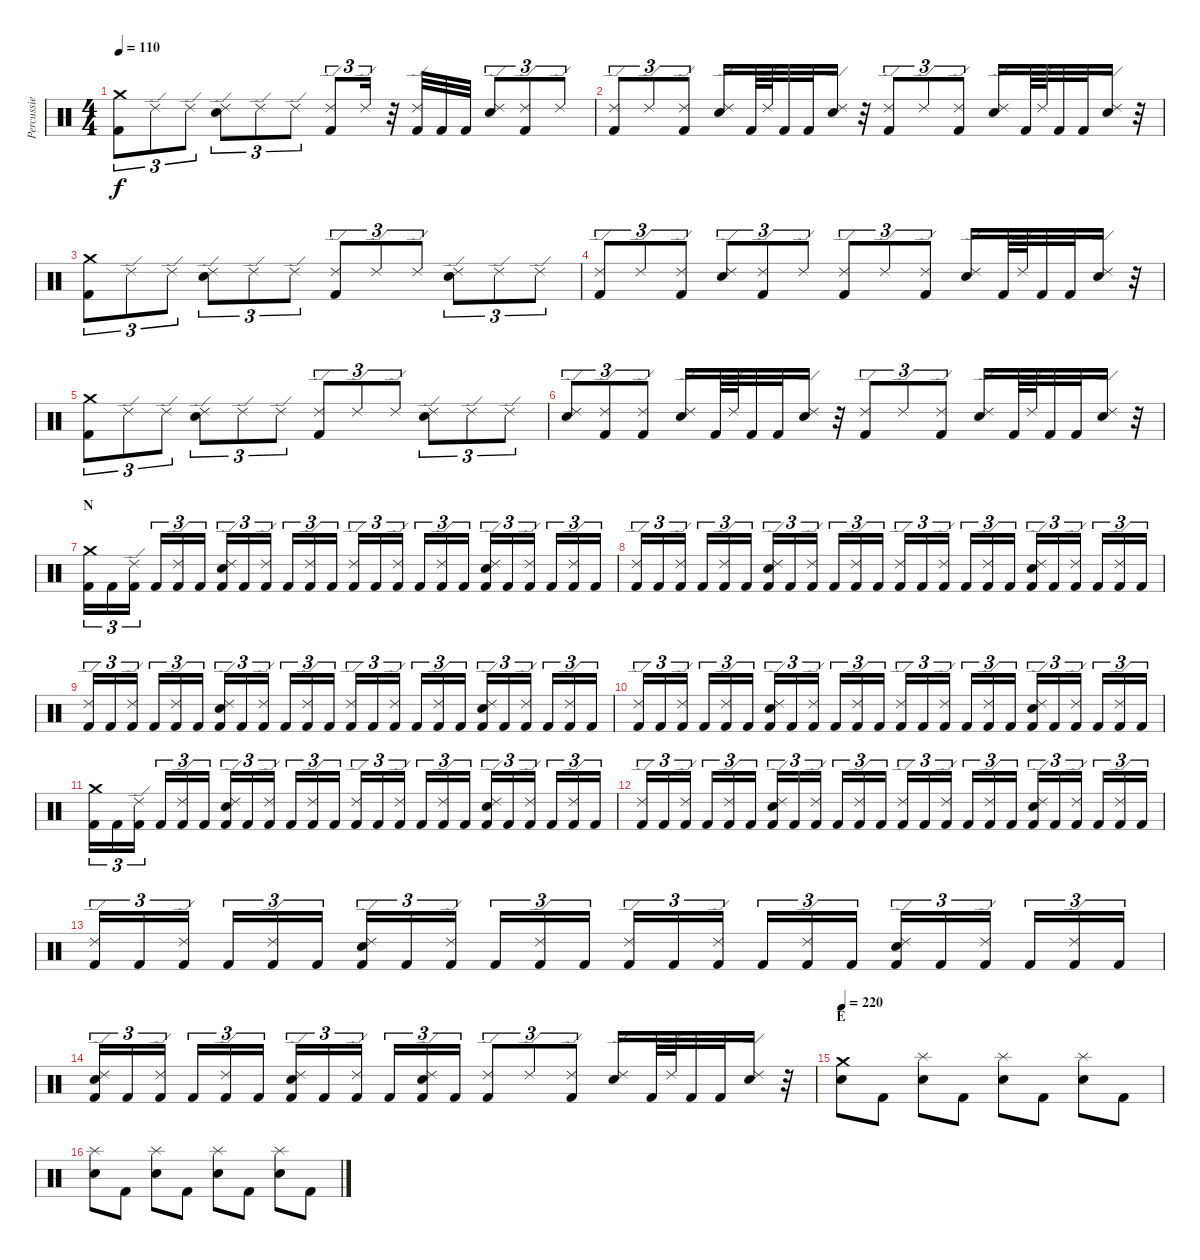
\track ("Percussie" "Percussie") {instrument percussion}
\staff {score}
\articulation defaults
\ts (4 4)
\tempo 110
\clef neutral
\ks c
("Crash medium (hit)" "Kick (hit) 2").8{tu (3 2) dy f} "Ride (edge) 2".8{tu (3 2)} "Ride (edge) 2".8{tu (3 2)} ("Ride (edge) 2" "Electric Snare (hit)").8{tu (3 2)} "Ride (edge) 2".8{tu (3 2)} "Ride (edge) 2".8{tu (3 2)} ("Ride (edge) 2" "Kick (hit) 2").8{tu (3 2)} "Ride (edge) 2".16{tu (3 2)} r.32 ("Ride (edge) 2" "Kick (hit) 2").32 "Kick (hit) 2".32 "Kick (hit) 2".32 ("Ride (edge) 2" "Electric Snare (hit)").8{tu (3 2)} ("Ride (edge) 2" "Kick (hit) 2").8{tu (3 2)} "Ride (edge) 2".8{tu (3 2)} |
("Ride (edge) 2" "Kick (hit) 2").8{tu (3 2)} "Ride (edge) 2".8{tu (3 2)} ("Ride (edge) 2" "Kick (hit) 2").8{tu (3 2)} ("Ride (edge) 2" "Electric Snare (hit)").16 "Kick (hit) 2".64 "Ride (edge) 2".64 "Kick (hit) 2".32 "Kick (hit) 2".32 ("Ride (edge) 2" "Electric Snare (hit)").16 r.32 ("Ride (edge) 2" "Kick (hit) 2").8{tu (3 2)} "Ride (edge) 2".8{tu (3 2)} ("Ride (edge) 2" "Kick (hit) 2").8{tu (3 2)} ("Ride (edge) 2" "Electric Snare (hit)").16 "Kick (hit) 2".64 "Ride (edge) 2".64 "Kick (hit) 2".32 "Kick (hit) 2".32 ("Ride (edge) 2" "Electric Snare (hit)").16 r.32 |
("Crash medium (hit)" "Kick (hit) 2").8{tu (3 2)} "Ride (edge) 2".8{tu (3 2)} "Ride (edge) 2".8{tu (3 2)} ("Ride (edge) 2" "Electric Snare (hit)").8{tu (3 2)} "Ride (edge) 2".8{tu (3 2)} "Ride (edge) 2".8{tu (3 2)} ("Ride (edge) 2" "Kick (hit) 2").8{tu (3 2)} "Ride (edge) 2".8{tu (3 2)} "Ride (edge) 2".8{tu (3 2)} ("Ride (edge) 2" "Electric Snare (hit)").8{tu (3 2)} "Ride (edge) 2".8{tu (3 2)} "Ride (edge) 2".8{tu (3 2)} |
("Ride (edge) 2" "Kick (hit) 2").8{tu (3 2)} "Ride (edge) 2".8{tu (3 2)} ("Ride (edge) 2" "Kick (hit) 2").8{tu (3 2)} ("Ride (edge) 2" "Electric Snare (hit)").8{tu (3 2)} ("Ride (edge) 2" "Kick (hit) 2").8{tu (3 2)} "Ride (edge) 2".8{tu (3 2)} ("Ride (edge) 2" "Kick (hit) 2").8{tu (3 2)} "Ride (edge) 2".8{tu (3 2)} ("Ride (edge) 2" "Kick (hit) 2").8{tu (3 2)} ("Ride (edge) 2" "Electric Snare (hit)").16 "Kick (hit) 2".64 "Ride (edge) 2".64 "Kick (hit) 2".32 "Kick (hit) 2".32 ("Ride (edge) 2" "Electric Snare (hit)").16 r.32 |
("Crash medium (hit)" "Kick (hit) 2").8{tu (3 2)} "Ride (edge) 2".8{tu (3 2)} "Ride (edge) 2".8{tu (3 2)} ("Ride (edge) 2" "Electric Snare (hit)").8{tu (3 2)} "Ride (edge) 2".8{tu (3 2)} "Ride (edge) 2".8{tu (3 2)} ("Ride (edge) 2" "Kick (hit) 2").8{tu (3 2)} "Ride (edge) 2".8{tu (3 2)} "Ride (edge) 2".8{tu (3 2)} ("Ride (edge) 2" "Electric Snare (hit)").8{tu (3 2)} "Ride (edge) 2".8{tu (3 2)} "Ride (edge) 2".8{tu (3 2)} |
("Ride (edge) 2" "Electric Snare (hit)").8{tu (3 2)} ("Ride (edge) 2" "Kick (hit) 2").8{tu (3 2)} ("Ride (edge) 2" "Kick (hit) 2").8{tu (3 2)} ("Ride (edge) 2" "Electric Snare (hit)").16 "Kick (hit) 2".64 "Ride (edge) 2".64 "Kick (hit) 2".32 "Kick (hit) 2".32 ("Ride (edge) 2" "Electric Snare (hit)").16 r.32 ("Ride (edge) 2" "Kick (hit) 2").8{tu (3 2)} "Ride (edge) 2".8{tu (3 2)} ("Ride (edge) 2" "Kick (hit) 2").8{tu (3 2)} ("Ride (edge) 2" "Electric Snare (hit)").16 "Kick (hit) 2".64 "Ride (edge) 2".64 "Kick (hit) 2".32 "Kick (hit) 2".32 ("Ride (edge) 2" "Electric Snare (hit)").16 r.32 |
\section ("" "N")
("Crash medium (hit)" "Kick (hit) 2").16{tu (3 2)} "Kick (hit) 2".16{tu (3 2)} ("Ride (edge) 2" "Kick (hit) 2").16{tu (3 2)} "Kick (hit) 2".16{tu (3 2)} ("Ride (edge) 2" "Kick (hit) 2").16{tu (3 2)} "Kick (hit) 2".16{tu (3 2)} ("Ride (edge) 2" "Electric Snare (hit)" "Kick (hit) 2").16{tu (3 2)} "Kick (hit) 2".16{tu (3 2)} ("Ride (edge) 2" "Kick (hit) 2").16{tu (3 2)} "Kick (hit) 2".16{tu (3 2)} ("Ride (edge) 2" "Kick (hit) 2").16{tu (3 2)} "Kick (hit) 2".16{tu (3 2)} ("Ride (edge) 2" "Kick (hit) 2").16{tu (3 2)} "Kick (hit) 2".16{tu (3 2)} ("Ride (edge) 2" "Kick (hit) 2").16{tu (3 2)} "Kick (hit) 2".16{tu (3 2)} ("Ride (edge) 2" "Kick (hit) 2").16{tu (3 2)} "Kick (hit) 2".16{tu (3 2)} ("Ride (edge) 2" "Electric Snare (hit)" "Kick (hit) 2").16{tu (3 2)} "Kick (hit) 2".16{tu (3 2)} ("Ride (edge) 2" "Kick (hit) 2").16{tu (3 2)} "Kick (hit) 2".16{tu (3 2)} ("Ride (edge) 2" "Kick (hit) 2").16{tu (3 2)} "Kick (hit) 2".16{tu (3 2)} |
("Ride (edge) 2" "Kick (hit) 2").16{tu (3 2)} "Kick (hit) 2".16{tu (3 2)} ("Ride (edge) 2" "Kick (hit) 2").16{tu (3 2)} "Kick (hit) 2".16{tu (3 2)} ("Ride (edge) 2" "Kick (hit) 2").16{tu (3 2)} "Kick (hit) 2".16{tu (3 2)} ("Ride (edge) 2" "Electric Snare (hit)" "Kick (hit) 2").16{tu (3 2)} "Kick (hit) 2".16{tu (3 2)} ("Ride (edge) 2" "Kick (hit) 2").16{tu (3 2)} "Kick (hit) 2".16{tu (3 2)} ("Ride (edge) 2" "Kick (hit) 2").16{tu (3 2)} "Kick (hit) 2".16{tu (3 2)} ("Ride (edge) 2" "Kick (hit) 2").16{tu (3 2)} "Kick (hit) 2".16{tu (3 2)} ("Ride (edge) 2" "Kick (hit) 2").16{tu (3 2)} "Kick (hit) 2".16{tu (3 2)} ("Ride (edge) 2" "Kick (hit) 2").16{tu (3 2)} "Kick (hit) 2".16{tu (3 2)} ("Ride (edge) 2" "Electric Snare (hit)" "Kick (hit) 2").16{tu (3 2)} "Kick (hit) 2".16{tu (3 2)} ("Ride (edge) 2" "Kick (hit) 2").16{tu (3 2)} "Kick (hit) 2".16{tu (3 2)} ("Ride (edge) 2" "Kick (hit) 2").16{tu (3 2)} "Kick (hit) 2".16{tu (3 2)} |
("Ride (edge) 2" "Kick (hit) 2").16{tu (3 2)} "Kick (hit) 2".16{tu (3 2)} ("Ride (edge) 2" "Kick (hit) 2").16{tu (3 2)} "Kick (hit) 2".16{tu (3 2)} ("Ride (edge) 2" "Kick (hit) 2").16{tu (3 2)} "Kick (hit) 2".16{tu (3 2)} ("Ride (edge) 2" "Electric Snare (hit)" "Kick (hit) 2").16{tu (3 2)} "Kick (hit) 2".16{tu (3 2)} ("Ride (edge) 2" "Kick (hit) 2").16{tu (3 2)} "Kick (hit) 2".16{tu (3 2)} ("Ride (edge) 2" "Kick (hit) 2").16{tu (3 2)} "Kick (hit) 2".16{tu (3 2)} ("Ride (edge) 2" "Kick (hit) 2").16{tu (3 2)} "Kick (hit) 2".16{tu (3 2)} ("Ride (edge) 2" "Kick (hit) 2").16{tu (3 2)} "Kick (hit) 2".16{tu (3 2)} ("Ride (edge) 2" "Kick (hit) 2").16{tu (3 2)} "Kick (hit) 2".16{tu (3 2)} ("Ride (edge) 2" "Electric Snare (hit)" "Kick (hit) 2").16{tu (3 2)} "Kick (hit) 2".16{tu (3 2)} ("Ride (edge) 2" "Kick (hit) 2").16{tu (3 2)} "Kick (hit) 2".16{tu (3 2)} ("Ride (edge) 2" "Kick (hit) 2").16{tu (3 2)} "Kick (hit) 2".16{tu (3 2)} |
("Ride (edge) 2" "Kick (hit) 2").16{tu (3 2)} "Kick (hit) 2".16{tu (3 2)} ("Ride (edge) 2" "Kick (hit) 2").16{tu (3 2)} "Kick (hit) 2".16{tu (3 2)} ("Ride (edge) 2" "Kick (hit) 2").16{tu (3 2)} "Kick (hit) 2".16{tu (3 2)} ("Ride (edge) 2" "Electric Snare (hit)" "Kick (hit) 2").16{tu (3 2)} "Kick (hit) 2".16{tu (3 2)} ("Ride (edge) 2" "Kick (hit) 2").16{tu (3 2)} "Kick (hit) 2".16{tu (3 2)} ("Ride (edge) 2" "Kick (hit) 2").16{tu (3 2)} "Kick (hit) 2".16{tu (3 2)} ("Ride (edge) 2" "Kick (hit) 2").16{tu (3 2)} "Kick (hit) 2".16{tu (3 2)} ("Ride (edge) 2" "Kick (hit) 2").16{tu (3 2)} "Kick (hit) 2".16{tu (3 2)} ("Ride (edge) 2" "Kick (hit) 2").16{tu (3 2)} "Kick (hit) 2".16{tu (3 2)} ("Ride (edge) 2" "Electric Snare (hit)" "Kick (hit) 2").16{tu (3 2)} "Kick (hit) 2".16{tu (3 2)} ("Ride (edge) 2" "Kick (hit) 2").16{tu (3 2)} "Kick (hit) 2".16{tu (3 2)} ("Ride (edge) 2" "Kick (hit) 2").16{tu (3 2)} "Kick (hit) 2".16{tu (3 2)} |
("Crash medium (hit)" "Kick (hit) 2").16{tu (3 2)} "Kick (hit) 2".16{tu (3 2)} ("Ride (edge) 2" "Kick (hit) 2").16{tu (3 2)} "Kick (hit) 2".16{tu (3 2)} ("Ride (edge) 2" "Kick (hit) 2").16{tu (3 2)} "Kick (hit) 2".16{tu (3 2)} ("Ride (edge) 2" "Electric Snare (hit)" "Kick (hit) 2").16{tu (3 2)} "Kick (hit) 2".16{tu (3 2)} ("Ride (edge) 2" "Kick (hit) 2").16{tu (3 2)} "Kick (hit) 2".16{tu (3 2)} ("Ride (edge) 2" "Kick (hit) 2").16{tu (3 2)} "Kick (hit) 2".16{tu (3 2)} ("Ride (edge) 2" "Kick (hit) 2").16{tu (3 2)} "Kick (hit) 2".16{tu (3 2)} ("Ride (edge) 2" "Kick (hit) 2").16{tu (3 2)} "Kick (hit) 2".16{tu (3 2)} ("Ride (edge) 2" "Kick (hit) 2").16{tu (3 2)} "Kick (hit) 2".16{tu (3 2)} ("Ride (edge) 2" "Electric Snare (hit)" "Kick (hit) 2").16{tu (3 2)} "Kick (hit) 2".16{tu (3 2)} ("Ride (edge) 2" "Kick (hit) 2").16{tu (3 2)} "Kick (hit) 2".16{tu (3 2)} ("Ride (edge) 2" "Kick (hit) 2").16{tu (3 2)} "Kick (hit) 2".16{tu (3 2)} |
("Ride (edge) 2" "Kick (hit) 2").16{tu (3 2)} "Kick (hit) 2".16{tu (3 2)} ("Ride (edge) 2" "Kick (hit) 2").16{tu (3 2)} "Kick (hit) 2".16{tu (3 2)} ("Ride (edge) 2" "Kick (hit) 2").16{tu (3 2)} "Kick (hit) 2".16{tu (3 2)} ("Ride (edge) 2" "Electric Snare (hit)" "Kick (hit) 2").16{tu (3 2)} "Kick (hit) 2".16{tu (3 2)} ("Ride (edge) 2" "Kick (hit) 2").16{tu (3 2)} "Kick (hit) 2".16{tu (3 2)} ("Ride (edge) 2" "Kick (hit) 2").16{tu (3 2)} "Kick (hit) 2".16{tu (3 2)} ("Ride (edge) 2" "Kick (hit) 2").16{tu (3 2)} "Kick (hit) 2".16{tu (3 2)} ("Ride (edge) 2" "Kick (hit) 2").16{tu (3 2)} "Kick (hit) 2".16{tu (3 2)} ("Ride (edge) 2" "Kick (hit) 2").16{tu (3 2)} "Kick (hit) 2".16{tu (3 2)} ("Ride (edge) 2" "Electric Snare (hit)" "Kick (hit) 2").16{tu (3 2)} "Kick (hit) 2".16{tu (3 2)} ("Ride (edge) 2" "Kick (hit) 2").16{tu (3 2)} "Kick (hit) 2".16{tu (3 2)} ("Ride (edge) 2" "Kick (hit) 2").16{tu (3 2)} "Kick (hit) 2".16{tu (3 2)} |
("Ride (edge) 2" "Kick (hit) 2").16{tu (3 2)} "Kick (hit) 2".16{tu (3 2)} ("Ride (edge) 2" "Kick (hit) 2").16{tu (3 2)} "Kick (hit) 2".16{tu (3 2)} ("Ride (edge) 2" "Kick (hit) 2").16{tu (3 2)} "Kick (hit) 2".16{tu (3 2)} ("Ride (edge) 2" "Electric Snare (hit)" "Kick (hit) 2").16{tu (3 2)} "Kick (hit) 2".16{tu (3 2)} ("Ride (edge) 2" "Kick (hit) 2").16{tu (3 2)} "Kick (hit) 2".16{tu (3 2)} ("Ride (edge) 2" "Kick (hit) 2").16{tu (3 2)} "Kick (hit) 2".16{tu (3 2)} ("Ride (edge) 2" "Kick (hit) 2").16{tu (3 2)} "Kick (hit) 2".16{tu (3 2)} ("Ride (edge) 2" "Kick (hit) 2").16{tu (3 2)} "Kick (hit) 2".16{tu (3 2)} ("Ride (edge) 2" "Kick (hit) 2").16{tu (3 2)} "Kick (hit) 2".16{tu (3 2)} ("Ride (edge) 2" "Electric Snare (hit)" "Kick (hit) 2").16{tu (3 2)} "Kick (hit) 2".16{tu (3 2)} ("Ride (edge) 2" "Kick (hit) 2").16{tu (3 2)} "Kick (hit) 2".16{tu (3 2)} ("Ride (edge) 2" "Kick (hit) 2").16{tu (3 2)} "Kick (hit) 2".16{tu (3 2)} |
("Ride (edge) 2" "Electric Snare (hit)" "Kick (hit) 2").16{tu (3 2)} "Kick (hit) 2".16{tu (3 2)} ("Ride (edge) 2" "Kick (hit) 2").16{tu (3 2)} "Kick (hit) 2".16{tu (3 2)} ("Ride (edge) 2" "Kick (hit) 2").16{tu (3 2)} "Kick (hit) 2".16{tu (3 2)} ("Ride (edge) 2" "Electric Snare (hit)" "Kick (hit) 2").16{tu (3 2)} "Kick (hit) 2".16{tu (3 2)} ("Ride (edge) 2" "Kick (hit) 2").16{tu (3 2)} "Kick (hit) 2".16{tu (3 2)} ("Ride (edge) 2" "Electric Snare (hit)" "Kick (hit) 2").16{tu (3 2)} "Kick (hit) 2".16{tu (3 2)} ("Ride (edge) 2" "Kick (hit) 2").8{tu (3 2)} "Ride (edge) 2".8{tu (3 2)} ("Ride (edge) 2" "Kick (hit) 2").8{tu (3 2)} ("Ride (edge) 2" "Electric Snare (hit)").16 "Kick (hit) 2".64 "Ride (edge) 2".64 "Kick (hit) 2".32 "Kick (hit) 2".32 ("Ride (edge) 2" "Electric Snare (hit)").16 r.32 |
\section ("" "E")
\tempo 220
("Crash medium (hit)" "Electric Snare (hit)").8 "Kick (hit) 2".8 ("Splash (hit)" "Electric Snare (hit)").8 "Kick (hit) 2".8 ("Splash (hit)" "Electric Snare (hit)").8 "Kick (hit) 2".8 ("Splash (hit)" "Electric Snare (hit)").8 "Kick (hit) 2".8 |
("Splash (hit)" "Electric Snare (hit)").8 "Kick (hit) 2".8 ("Splash (hit)" "Electric Snare (hit)").8 "Kick (hit) 2".8 ("Splash (hit)" "Electric Snare (hit)").8 "Kick (hit) 2".8 ("Splash (hit)" "Electric Snare (hit)").8 "Kick (hit) 2".8
